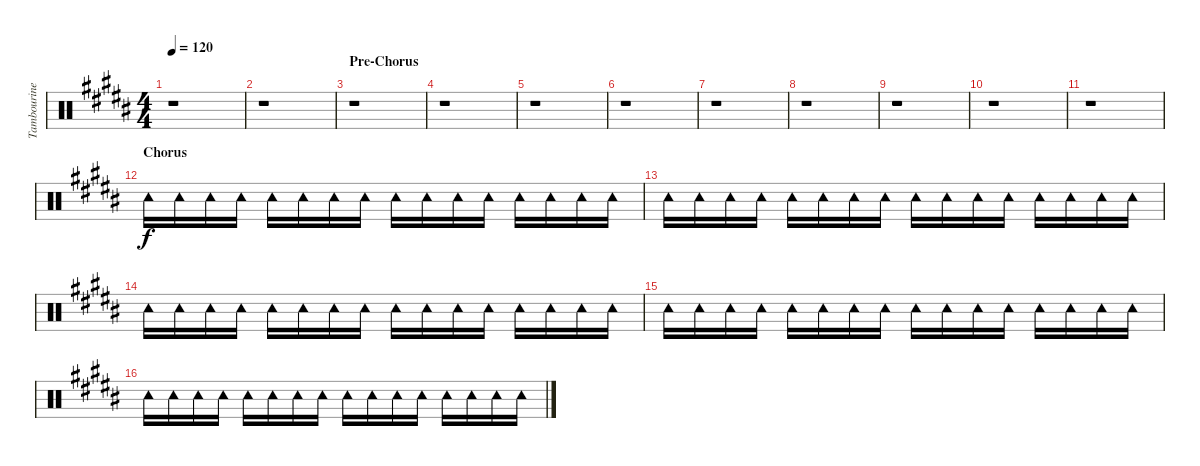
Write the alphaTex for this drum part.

\track ("Tambourine" "Tambourine") {instrument percussion}
\staff {score}
\articulation defaults
\ts (4 4)
\tempo 120
\clef neutral
\ks b
r.1{dy f} |
r.1 |
\section ("" "Pre-Chorus")
r.1 |
r.1 |
r.1 |
r.1 |
r.1 |
r.1 |
r.1 |
r.1 |
r.1 |
\section ("" "Chorus")
"Tambourine (hit)".16 "Tambourine (hit)".16 "Tambourine (hit)".16 "Tambourine (hit)".16 "Tambourine (hit)".16 "Tambourine (hit)".16 "Tambourine (hit)".16 "Tambourine (hit)".16 "Tambourine (hit)".16 "Tambourine (hit)".16 "Tambourine (hit)".16 "Tambourine (hit)".16 "Tambourine (hit)".16 "Tambourine (hit)".16 "Tambourine (hit)".16 "Tambourine (hit)".16 |
"Tambourine (hit)".16 "Tambourine (hit)".16 "Tambourine (hit)".16 "Tambourine (hit)".16 "Tambourine (hit)".16 "Tambourine (hit)".16 "Tambourine (hit)".16 "Tambourine (hit)".16 "Tambourine (hit)".16 "Tambourine (hit)".16 "Tambourine (hit)".16 "Tambourine (hit)".16 "Tambourine (hit)".16 "Tambourine (hit)".16 "Tambourine (hit)".16 "Tambourine (hit)".16 |
"Tambourine (hit)".16 "Tambourine (hit)".16 "Tambourine (hit)".16 "Tambourine (hit)".16 "Tambourine (hit)".16 "Tambourine (hit)".16 "Tambourine (hit)".16 "Tambourine (hit)".16 "Tambourine (hit)".16 "Tambourine (hit)".16 "Tambourine (hit)".16 "Tambourine (hit)".16 "Tambourine (hit)".16 "Tambourine (hit)".16 "Tambourine (hit)".16 "Tambourine (hit)".16 |
"Tambourine (hit)".16 "Tambourine (hit)".16 "Tambourine (hit)".16 "Tambourine (hit)".16 "Tambourine (hit)".16 "Tambourine (hit)".16 "Tambourine (hit)".16 "Tambourine (hit)".16 "Tambourine (hit)".16 "Tambourine (hit)".16 "Tambourine (hit)".16 "Tambourine (hit)".16 "Tambourine (hit)".16 "Tambourine (hit)".16 "Tambourine (hit)".16 "Tambourine (hit)".16 |
"Tambourine (hit)".16 "Tambourine (hit)".16 "Tambourine (hit)".16 "Tambourine (hit)".16 "Tambourine (hit)".16 "Tambourine (hit)".16 "Tambourine (hit)".16 "Tambourine (hit)".16 "Tambourine (hit)".16 "Tambourine (hit)".16 "Tambourine (hit)".16 "Tambourine (hit)".16 "Tambourine (hit)".16 "Tambourine (hit)".16 "Tambourine (hit)".16 "Tambourine (hit)".16
